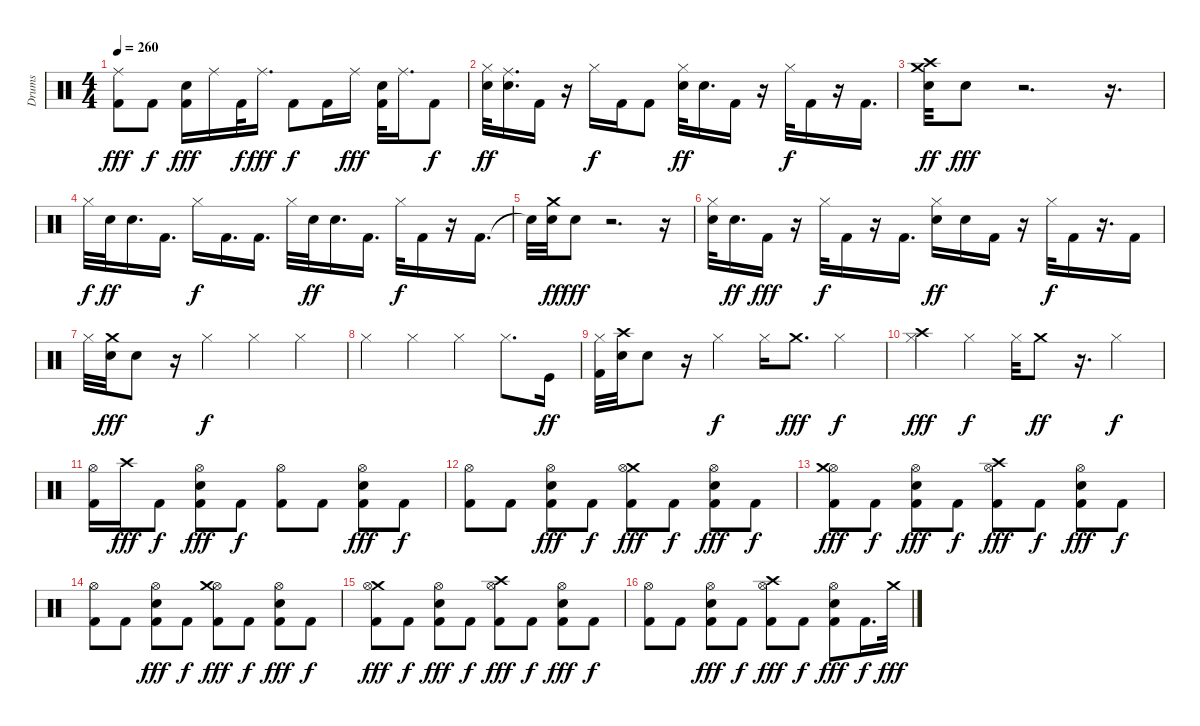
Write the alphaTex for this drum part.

\track ("Drums" "Drums") {instrument percussion}
\staff {score}
\articulation defaults
\ts (4 4)
\tempo 260
\clef neutral
\ks c
("Kick (hit) 2" "Ride (middle)").8{dy fff} "Kick (hit) 2".8{dy f} ("Snare (hit) 2" "Kick (hit) 2").16{dy fff} "Ride (middle)".16 "Kick (hit) 2".32{dy f} "Ride (middle)".16{d dy fff} "Kick (hit) 2".8{dy f} "Kick (hit) 2".16 "Ride (middle)".16{dy fff} ("Snare (hit) 2" "Kick (hit) 2").32 "Ride (middle)".16{d} "Kick (hit) 2".8{dy f} |
("Hi-Hat (closed)" "Electric Snare (hit)").32{dy ff} ("Ride (middle)" "Snare (hit) 2").16{d} "Kick (hit) 2".16 r.16 "Hi-Hat (closed)".16{dy f} "Kick (hit) 2".16 "Kick (hit) 2".8 ("Hi-Hat (closed)" "Electric Snare (hit)").32{dy ff} "Snare (hit) 2".16{d} "Kick (hit) 2".16 r.16 "Hi-Hat (closed)".32{dy f} "Kick (hit) 2".16 r.16 "Kick (hit) 2".16{d} |
("Crash high (hit)" "Crash medium (hit)" "Electric Snare (hit)").32{dy ff} "Snare (hit) 2".8{dy fff} r.2{d} r.16{d} |
"Hi-Hat (closed)".32{dy f} "Electric Snare (hit)".32{dy ff} "Snare (hit) 2".16{d} "Kick (hit) 2".16{d} "Hi-Hat (closed)".16{dy f} "Kick (hit) 2".16{d} "Kick (hit) 2".16{d} "Hi-Hat (closed)".32 "Electric Snare (hit)".32{dy ff} "Snare (hit) 2".16{d} "Kick (hit) 2".16{d} "Hi-Hat (closed)".32{dy f} "Kick (hit) 2".16 r.16 "Kick (hit) 2".16{d} |
"Snare (hit)"{t}.32 ("Crash medium (hit)" "Electric Snare (hit)").32{dy ff} "Snare (hit) 2".8{dy fff} r.2{d} r.16 |
("Electric Snare (hit)" "Hi-Hat (closed)").32 "Snare (hit) 2".16{d dy ff} "Kick (hit) 2".16{dy fff} r.16 "Hi-Hat (closed)".32{dy f} "Kick (hit) 2".16 r.16 "Kick (hit) 2".16{d} ("Hi-Hat (closed)" "Electric Snare (hit)").16{dy ff} "Snare (hit) 2".16 "Kick (hit) 2".16 r.16 "Hi-Hat (closed)".32{dy f} "Kick (hit) 2".16 r.16{d} "Kick (hit) 2".16 |
"Hi-Hat (closed)".32 ("Electric Snare (hit)" "Crash medium (hit)").32{dy fff} "Snare (hit) 2".8 r.16 "Hi-Hat (closed)".4{dy f} "Hi-Hat (closed)".4 "Hi-Hat (closed)".4 |
"Hi-Hat (closed)".4 "Hi-Hat (closed)".4 "Hi-Hat (closed)".4 "Hi-Hat (closed)".8{d} "Kick (hit)".16{dy ff} |
("Hi-Hat (closed)" "Kick (hit) 2").32 ("Electric Snare (hit)" "Crash high (hit)").32 "Snare (hit) 2".8 r.16 "Hi-Hat (closed)".4{dy f} "Hi-Hat (closed)".16 "Crash medium (hit)".8{d dy fff} "Hi-Hat (closed)".4{dy f} |
("Hi-Hat (closed)" "Crash high (hit)").4{dy fff} "Hi-Hat (closed)".4{dy f} "Hi-Hat (closed)".32 "Crash medium (hit)".8{dy ff} r.16{d} "Hi-Hat (closed)".4{dy f} |
("Hi-Hat (open)" "Kick (hit) 2").16 "Crash high (hit)".16{dy fff} "Kick (hit) 2".8{dy f} ("Hi-Hat (open)" "Snare (hit) 2" "Kick (hit) 2").8{dy fff} "Kick (hit) 2".8{dy f} ("Hi-Hat (open)" "Kick (hit) 2").8 "Kick (hit) 2".8 ("Hi-Hat (open)" "Snare (hit) 2" "Kick (hit) 2").8{dy fff} "Kick (hit) 2".8{dy f} |
("Hi-Hat (open)" "Kick (hit) 2").8 "Kick (hit) 2".8 ("Hi-Hat (open)" "Snare (hit) 2" "Kick (hit) 2").8{dy fff} "Kick (hit) 2".8{dy f} ("Crash medium (hit)" "Hi-Hat (open)" "Kick (hit) 2").8{dy fff} "Kick (hit) 2".8{dy f} ("Hi-Hat (open)" "Snare (hit) 2" "Kick (hit) 2").8{dy fff} "Kick (hit) 2".8{dy f} |
("Hi-Hat (open)" "Kick (hit) 2" "Crash medium (hit)").8{dy fff} "Kick (hit) 2".8{dy f} ("Hi-Hat (open)" "Snare (hit) 2" "Kick (hit) 2").8{dy fff} "Kick (hit) 2".8{dy f} ("Crash high (hit)" "Hi-Hat (open)" "Kick (hit) 2").8{dy fff} "Kick (hit) 2".8{dy f} ("Hi-Hat (open)" "Snare (hit) 2" "Kick (hit) 2").8{dy fff} "Kick (hit) 2".8{dy f} |
("Hi-Hat (open)" "Kick (hit) 2").8 "Kick (hit) 2".8 ("Hi-Hat (open)" "Snare (hit) 2" "Kick (hit) 2").8{dy fff} "Kick (hit) 2".8{dy f} ("Hi-Hat (open)" "Kick (hit) 2" "Crash medium (hit)").8{dy fff} "Kick (hit) 2".8{dy f} ("Hi-Hat (open)" "Snare (hit) 2" "Kick (hit) 2").8{dy fff} "Kick (hit) 2".8{dy f} |
("Crash medium (hit)" "Hi-Hat (open)" "Kick (hit) 2").8{dy fff} "Kick (hit) 2".8{dy f} ("Hi-Hat (open)" "Snare (hit) 2" "Kick (hit) 2").8{dy fff} "Kick (hit) 2".8{dy f} ("Hi-Hat (open)" "Kick (hit) 2" "Crash high (hit)").8{dy fff} "Kick (hit) 2".8{dy f} ("Hi-Hat (open)" "Snare (hit) 2" "Kick (hit) 2").8{dy fff} "Kick (hit) 2".8{dy f} |
("Hi-Hat (open)" "Kick (hit) 2").8 "Kick (hit) 2".8 ("Hi-Hat (open)" "Snare (hit) 2" "Kick (hit) 2").8{dy fff} "Kick (hit) 2".8{dy f} ("Hi-Hat (open)" "Kick (hit) 2" "Crash high (hit)").8{dy fff} "Kick (hit) 2".8{dy f} ("Hi-Hat (open)" "Snare (hit) 2" "Kick (hit) 2").8{dy fff} "Kick (hit) 2".16{d dy f} "Crash medium (hit)".32{dy fff}
